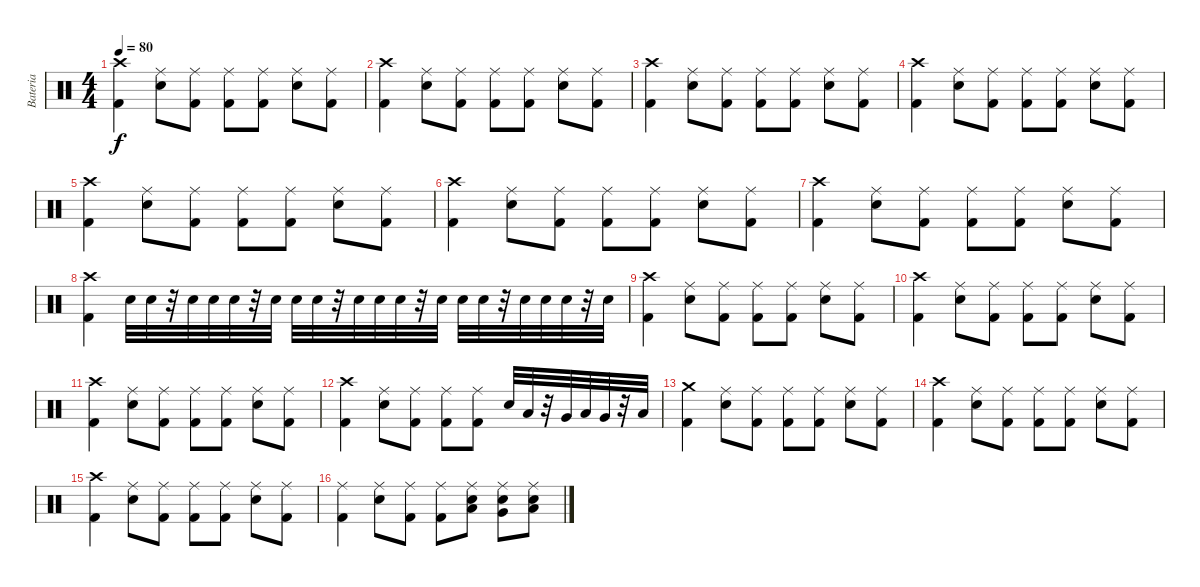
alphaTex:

\track ("Bateria" "Bateria") {instrument percussion}
\staff {score}
\articulation defaults
\ts (4 4)
\tempo 80
\clef neutral
\ks c
("Crash high (hit)" "Kick (hit) 2").4{dy f} ("Ride (middle)" "Snare (hit) 2").8 ("Ride (middle)" "Kick (hit) 2").8 ("Ride (middle)" "Kick (hit) 2").8 ("Ride (middle)" "Kick (hit) 2").8 ("Ride (middle)" "Snare (hit) 2").8 ("Ride (middle)" "Kick (hit) 2").8 |
("Crash high (hit)" "Kick (hit) 2").4 ("Ride (middle)" "Snare (hit) 2").8 ("Ride (middle)" "Kick (hit) 2").8 ("Ride (middle)" "Kick (hit) 2").8 ("Ride (middle)" "Kick (hit) 2").8 ("Ride (middle)" "Snare (hit) 2").8 ("Ride (middle)" "Kick (hit) 2").8 |
("Crash high (hit)" "Kick (hit) 2").4 ("Ride (middle)" "Snare (hit) 2").8 ("Ride (middle)" "Kick (hit) 2").8 ("Ride (middle)" "Kick (hit) 2").8 ("Ride (middle)" "Kick (hit) 2").8 ("Ride (middle)" "Snare (hit) 2").8 ("Ride (middle)" "Kick (hit) 2").8 |
("Crash high (hit)" "Kick (hit) 2").4 ("Ride (middle)" "Snare (hit) 2").8 ("Ride (middle)" "Kick (hit) 2").8 ("Ride (middle)" "Kick (hit) 2").8 ("Ride (middle)" "Kick (hit) 2").8 ("Ride (middle)" "Snare (hit) 2").8 ("Ride (middle)" "Kick (hit) 2").8 |
("Crash high (hit)" "Kick (hit) 2").4 ("Ride (middle)" "Snare (hit) 2").8 ("Ride (middle)" "Kick (hit) 2").8 ("Ride (middle)" "Kick (hit) 2").8 ("Ride (middle)" "Kick (hit) 2").8 ("Ride (middle)" "Snare (hit) 2").8 ("Ride (middle)" "Kick (hit) 2").8 |
("Crash high (hit)" "Kick (hit) 2").4 ("Ride (middle)" "Snare (hit) 2").8 ("Ride (middle)" "Kick (hit) 2").8 ("Ride (middle)" "Kick (hit) 2").8 ("Ride (middle)" "Kick (hit) 2").8 ("Ride (middle)" "Snare (hit) 2").8 ("Ride (middle)" "Kick (hit) 2").8 |
("Crash high (hit)" "Kick (hit) 2").4 ("Ride (middle)" "Snare (hit) 2").8 ("Ride (middle)" "Kick (hit) 2").8 ("Ride (middle)" "Kick (hit) 2").8 ("Ride (middle)" "Kick (hit) 2").8 ("Ride (middle)" "Snare (hit) 2").8 ("Ride (middle)" "Kick (hit) 2").8 |
("Crash high (hit)" "Kick (hit) 2").4 "Snare (hit) 2".32 "Snare (hit) 2".32 r.32 "Snare (hit) 2".32 "Snare (hit) 2".32 "Snare (hit) 2".32 r.32 "Snare (hit) 2".32 "Snare (hit) 2".32 "Snare (hit) 2".32 r.32 "Snare (hit) 2".32 "Snare (hit) 2".32 "Snare (hit) 2".32 r.32 "Snare (hit) 2".32 "Snare (hit) 2".32 "Snare (hit) 2".32 r.32 "Snare (hit) 2".32 "Snare (hit) 2".32 "Snare (hit) 2".32 r.32 "Snare (hit) 2".32 |
("Crash high (hit)" "Kick (hit) 2").4 ("Ride (middle)" "Snare (hit) 2").8 ("Ride (middle)" "Kick (hit) 2").8 ("Ride (middle)" "Kick (hit) 2").8 ("Ride (middle)" "Kick (hit) 2").8 ("Ride (middle)" "Snare (hit) 2").8 ("Ride (middle)" "Kick (hit) 2").8 |
("Crash high (hit)" "Kick (hit) 2").4 ("Ride (middle)" "Snare (hit) 2").8 ("Ride (middle)" "Kick (hit) 2").8 ("Ride (middle)" "Kick (hit) 2").8 ("Ride (middle)" "Kick (hit) 2").8 ("Ride (middle)" "Snare (hit) 2").8 ("Ride (middle)" "Kick (hit) 2").8 |
("Crash high (hit)" "Kick (hit) 2").4 ("Ride (middle)" "Snare (hit) 2").8 ("Ride (middle)" "Kick (hit) 2").8 ("Ride (middle)" "Kick (hit) 2").8 ("Ride (middle)" "Kick (hit) 2").8 ("Ride (middle)" "Snare (hit) 2").8 ("Ride (middle)" "Kick (hit) 2").8 |
("Crash high (hit)" "Kick (hit) 2").4 ("Ride (middle)" "Snare (hit) 2").8 ("Ride (middle)" "Kick (hit) 2").8 ("Ride (middle)" "Kick (hit) 2").8 ("Ride (middle)" "Kick (hit) 2").8 "Snare (hit) 2".32 "Low Tom (hit)".32 r.32 "Very Low Tom (hit)".32 "Low Tom (hit)".32 "Very Low Tom (hit)".32 r.32 "Low Floor Tom (hit)".32 |
("Kick (hit) 2" "Crash medium (hit)").4 ("Ride (middle)" "Snare (hit) 2").8 ("Ride (middle)" "Kick (hit) 2").8 ("Ride (middle)" "Kick (hit) 2").8 ("Ride (middle)" "Kick (hit) 2").8 ("Ride (middle)" "Snare (hit) 2").8 ("Ride (middle)" "Kick (hit) 2").8 |
("Crash high (hit)" "Kick (hit) 2").4 ("Ride (middle)" "Snare (hit) 2").8 ("Ride (middle)" "Kick (hit) 2").8 ("Ride (middle)" "Kick (hit) 2").8 ("Ride (middle)" "Kick (hit) 2").8 ("Ride (middle)" "Snare (hit) 2").8 ("Ride (middle)" "Kick (hit) 2").8 |
("Crash high (hit)" "Kick (hit) 2").4 ("Ride (middle)" "Snare (hit) 2").8 ("Ride (middle)" "Kick (hit) 2").8 ("Ride (middle)" "Kick (hit) 2").8 ("Ride (middle)" "Kick (hit) 2").8 ("Ride (middle)" "Snare (hit) 2").8 ("Ride (middle)" "Kick (hit) 2").8 |
("Ride (middle)" "Kick (hit) 2").4 ("Ride (middle)" "Snare (hit) 2").8 ("Ride (middle)" "Kick (hit) 2").8 ("Ride (middle)" "Kick (hit) 2").8 ("Ride (middle)" "Snare (hit) 2" "Low Tom (hit)").8 ("Ride (middle)" "Snare (hit) 2" "Very Low Tom (hit)").8 ("Ride (middle)" "Snare (hit) 2" "Low Floor Tom (hit)").8
